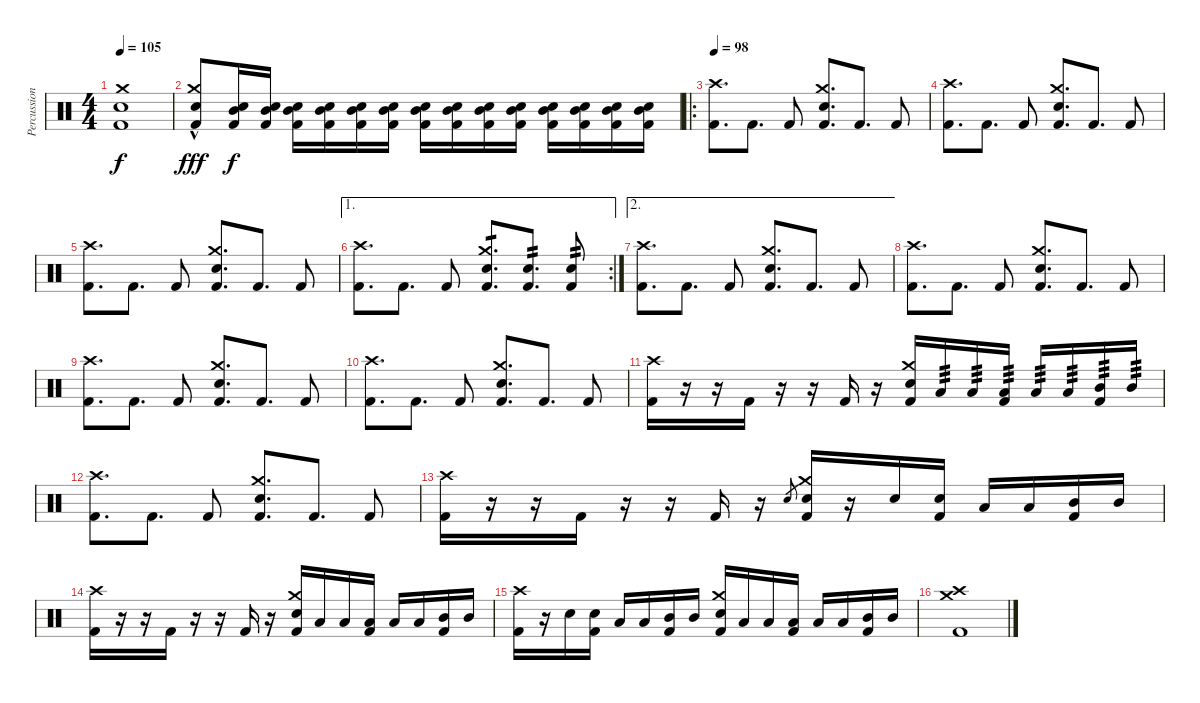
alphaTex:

\track ("Percussion" "Percussion") {instrument percussion}
\staff {score}
\articulation defaults
\ts (4 4)
\tempo 105
\clef neutral
\ks c
("Snare (hit) 2" "Crash medium (hit)" "Kick (hit) 2").1{dy f} |
("Snare (hit) 2"{hac} "Crash medium (hit)"{hac} "Kick (hit) 2"{hac}).8{dy fff} ("Snare (hit) 2" "Mid Tom (hit)" "Kick (hit) 2").16{dy f volume 8} ("Snare (hit) 2" "Mid Tom (hit)" "Kick (hit) 2").16{volume 16} ("Snare (hit) 2" "Mid Tom (hit)" "Kick (hit) 2").16 ("Snare (hit) 2" "Mid Tom (hit)" "Kick (hit) 2").16 ("Snare (hit) 2" "Mid Tom (hit)" "Kick (hit) 2").16 ("Snare (hit) 2" "Mid Tom (hit)" "Kick (hit) 2").16 ("Snare (hit) 2" "Mid Tom (hit)" "Kick (hit) 2").16 ("Snare (hit) 2" "Mid Tom (hit)" "Kick (hit) 2").16 ("Snare (hit) 2" "Mid Tom (hit)" "Kick (hit) 2").16 ("Snare (hit) 2" "Mid Tom (hit)" "Kick (hit) 2").16 ("Snare (hit) 2" "Mid Tom (hit)" "Kick (hit) 2").16 ("Snare (hit) 2" "Mid Tom (hit)" "Kick (hit) 2").16 ("Snare (hit) 2" "Mid Tom (hit)" "Kick (hit) 2").16 ("Snare (hit) 2" "Mid Tom (hit)" "Kick (hit) 2").16 |
\ro
\tempo 98
("Crash high (hit)" "Kick (hit) 2").8{d} "Kick (hit) 2".8{d} "Kick (hit) 2".8 ("Snare (hit) 2" "Crash medium (hit)" "Kick (hit) 2").8{d} "Kick (hit) 2".8{d} "Kick (hit) 2".8 |
("Crash high (hit)" "Kick (hit) 2").8{d} "Kick (hit) 2".8{d} "Kick (hit) 2".8 ("Snare (hit) 2" "Crash medium (hit)" "Kick (hit) 2").8{d} "Kick (hit) 2".8{d} "Kick (hit) 2".8 |
("Crash high (hit)" "Kick (hit) 2").8{d} "Kick (hit) 2".8{d} "Kick (hit) 2".8 ("Snare (hit) 2" "Crash medium (hit)" "Kick (hit) 2").8{d} "Kick (hit) 2".8{d} "Kick (hit) 2".8 |
\ae 1
\rc 2
("Crash high (hit)" "Kick (hit) 2").8{d} "Kick (hit) 2".8{d} "Kick (hit) 2".8 ("Snare (hit) 2" "Crash medium (hit)" "Kick (hit) 2").8{d tp 1} ("Snare (hit) 2" "Kick (hit) 2").8{d tp 2} ("Snare (hit) 2" "Kick (hit) 2").8{tp 2} |
\ae 2
("Crash high (hit)" "Kick (hit) 2").8{d} "Kick (hit) 2".8{d} "Kick (hit) 2".8 ("Snare (hit) 2" "Crash medium (hit)" "Kick (hit) 2").8{d} "Kick (hit) 2".8{d} "Kick (hit) 2".8 |
("Crash high (hit)" "Kick (hit) 2").8{d} "Kick (hit) 2".8{d} "Kick (hit) 2".8 ("Snare (hit) 2" "Crash medium (hit)" "Kick (hit) 2").8{d} "Kick (hit) 2".8{d} "Kick (hit) 2".8 |
("Crash high (hit)" "Kick (hit) 2").8{d} "Kick (hit) 2".8{d} "Kick (hit) 2".8 ("Snare (hit) 2" "Crash medium (hit)" "Kick (hit) 2").8{d} "Kick (hit) 2".8{d} "Kick (hit) 2".8 |
("Crash high (hit)" "Kick (hit) 2").8{d} "Kick (hit) 2".8{d} "Kick (hit) 2".8 ("Snare (hit) 2" "Crash medium (hit)" "Kick (hit) 2").8{d} "Kick (hit) 2".8{d} "Kick (hit) 2".8 |
("Crash high (hit)" "Kick (hit) 2").16 r.16 r.16 "Kick (hit) 2".16 r.16 r.16 "Kick (hit) 2".16 r.16 ("Snare (hit) 2" "Crash medium (hit)" "Kick (hit) 2").16 "Low Floor Tom (hit)".16{tp 3} "Low Floor Tom (hit)".16{tp 3} ("Low Floor Tom (hit)" "Kick (hit) 2").16{tp 3} "Low Tom (hit)".16{tp 3} "Low Tom (hit)".16{tp 3} ("Mid Tom (hit)" "Kick (hit) 2").16{tp 3} "Mid Tom (hit)".16{tp 3} |
("Crash high (hit)" "Kick (hit) 2").8{d} "Kick (hit) 2".8{d} "Kick (hit) 2".8 ("Snare (hit) 2" "Crash medium (hit)" "Kick (hit) 2").8{d} "Kick (hit) 2".8{d} "Kick (hit) 2".8 |
("Crash high (hit)" "Kick (hit) 2").16 r.16 r.16 "Kick (hit) 2".16 r.16 r.16 "Kick (hit) 2".16 r.16 "Snare (hit) 2".8{gr} ("Snare (hit) 2" "Crash medium (hit)" "Kick (hit) 2").16 r.16 "Snare (hit) 2".16 ("Snare (hit) 2" "Kick (hit) 2").16 "Low Tom (hit)".16 "Low Tom (hit)".16 ("Mid Tom (hit)" "Kick (hit) 2").16 "Mid Tom (hit)".16 |
("Crash high (hit)" "Kick (hit) 2").16 r.16 r.16 "Kick (hit) 2".16 r.16 r.16 "Kick (hit) 2".16 r.16 ("Snare (hit) 2" "Crash medium (hit)" "Kick (hit) 2").16 "Low Floor Tom (hit)".16 "Low Floor Tom (hit)".16 ("Low Floor Tom (hit)" "Kick (hit) 2").16 "Low Tom (hit)".16 "Low Tom (hit)".16 ("Mid Tom (hit)" "Kick (hit) 2").16 "Mid Tom (hit)".16 |
("Crash high (hit)" "Kick (hit) 2").16 r.16 "Snare (hit) 2".16 ("Snare (hit) 2" "Kick (hit) 2").16 "Low Tom (hit)".16 "Low Tom (hit)".16 ("Mid Tom (hit)" "Kick (hit) 2").16 "Mid Tom (hit)".16 ("Snare (hit) 2" "Crash medium (hit)" "Kick (hit) 2").16 "Low Floor Tom (hit)".16 "Low Floor Tom (hit)".16 ("Low Floor Tom (hit)" "Kick (hit) 2").16 "Low Tom (hit)".16 "Low Tom (hit)".16 ("Mid Tom (hit)" "Kick (hit) 2").16 "Mid Tom (hit)".16 |
("Crash medium (hit)" "Crash high (hit)" "Kick (hit) 2").1
